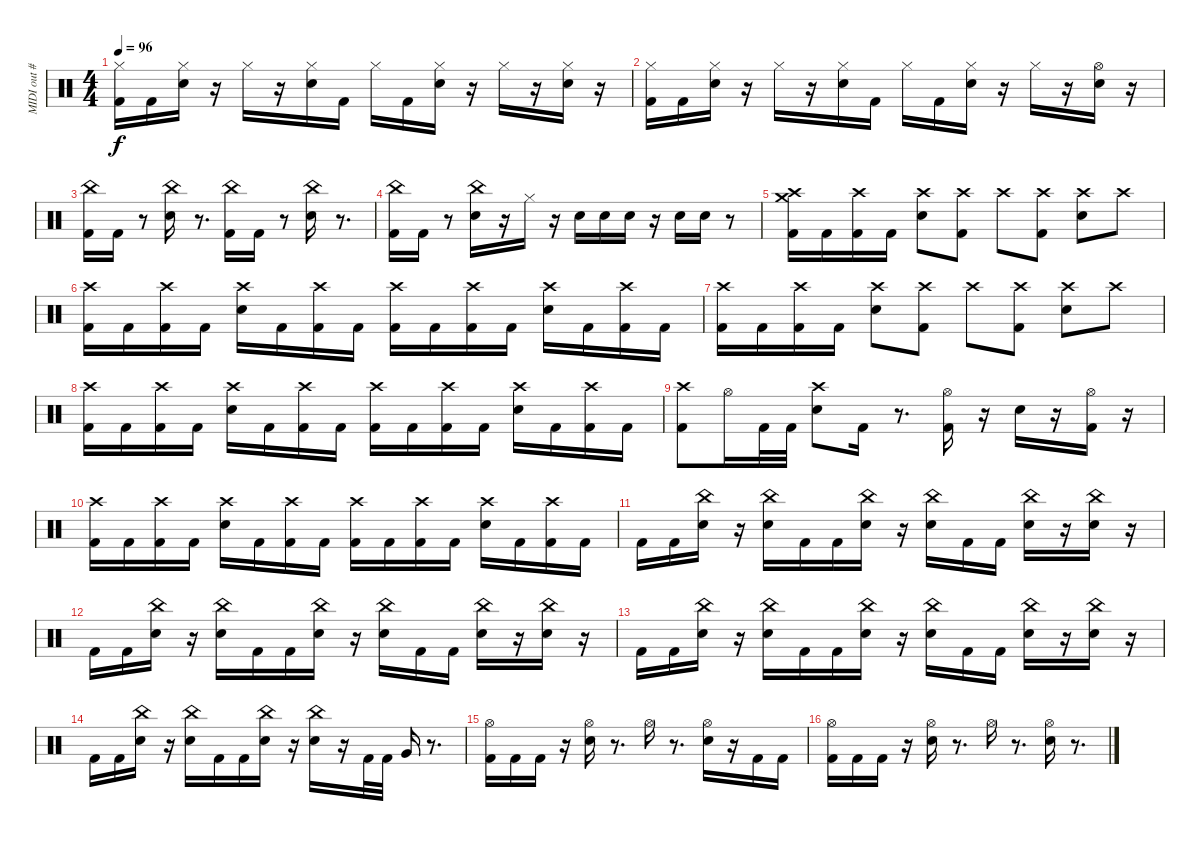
\track ("MIDI out #3" "MIDI out #") {instrument percussion}
\staff {score}
\articulation defaults
\ts (4 4)
\tempo 96
\clef neutral
\ks c
("Hi-Hat (closed)" "Kick (hit) 2").16{dy f} "Kick (hit) 2".16 ("Snare (hit) 2" "Hi-Hat (closed)").16 r.16 "Hi-Hat (closed)".16 r.16 ("Snare (hit) 2" "Hi-Hat (closed)").16 "Kick (hit) 2".16 "Hi-Hat (closed)".16 "Kick (hit) 2".16 ("Snare (hit) 2" "Hi-Hat (closed)").16 r.16 "Hi-Hat (closed)".16 r.16 ("Snare (hit) 2" "Hi-Hat (closed)").16 r.16 |
("Hi-Hat (closed)" "Kick (hit) 2").16 "Kick (hit) 2".16 ("Hi-Hat (closed)" "Snare (hit) 2").16 r.16 "Hi-Hat (closed)".16 r.16 ("Hi-Hat (closed)" "Snare (hit) 2").16 "Kick (hit) 2".16 "Hi-Hat (closed)".16 "Kick (hit) 2".16 ("Hi-Hat (closed)" "Snare (hit) 2").16 r.16 "Hi-Hat (closed)".16 r.16 ("Hi-Hat (open)" "Snare (hit) 2").16 r.16 |
("China (hit)" "Kick (hit) 2").16 "Kick (hit) 2".16 r.8 ("China (hit)" "Snare (hit) 2").16 r.8{d} ("China (hit)" "Kick (hit) 2").16 "Kick (hit) 2".16 r.8 ("China (hit)" "Snare (hit) 2").16 r.8{d} |
("China (hit)" "Kick (hit) 2").16 "Kick (hit) 2".16 r.8 ("China (hit)" "Snare (hit) 2").16 r.16 "Hi-Hat (closed)".16 r.16 "Snare (hit) 2".16 "Snare (hit) 2".16 "Snare (hit) 2".16 r.16 "Snare (hit) 2".16 "Snare (hit) 2".16 r.8 |
("Crash high (hit)" "Kick (hit) 2" "Crash medium (hit)").16 "Kick (hit) 2".16 ("Crash high (hit)" "Kick (hit) 2").16 "Kick (hit) 2".16 ("Crash high (hit)" "Snare (hit) 2").8 ("Crash high (hit)" "Kick (hit) 2").8 "Crash high (hit)".8 ("Crash high (hit)" "Kick (hit) 2").8 ("Crash high (hit)" "Snare (hit) 2").8 "Crash high (hit)".8 |
("Crash high (hit)" "Kick (hit) 2").16 "Kick (hit) 2".16 ("Crash high (hit)" "Kick (hit) 2").16 "Kick (hit) 2".16 ("Crash high (hit)" "Snare (hit) 2").16 "Kick (hit) 2".16 ("Crash high (hit)" "Kick (hit) 2").16 "Kick (hit) 2".16 ("Crash high (hit)" "Kick (hit) 2").16 "Kick (hit) 2".16 ("Crash high (hit)" "Kick (hit) 2").16 "Kick (hit) 2".16 ("Crash high (hit)" "Snare (hit) 2").16 "Kick (hit) 2".16 ("Crash high (hit)" "Kick (hit) 2").16 "Kick (hit) 2".16 |
("Crash high (hit)" "Kick (hit) 2").16 "Kick (hit) 2".16 ("Crash high (hit)" "Kick (hit) 2").16 "Kick (hit) 2".16 ("Crash high (hit)" "Snare (hit) 2").8 ("Crash high (hit)" "Kick (hit) 2").8 "Crash high (hit)".8 ("Crash high (hit)" "Kick (hit) 2").8 ("Crash high (hit)" "Snare (hit) 2").8 "Crash high (hit)".8 |
("Kick (hit) 2" "Crash high (hit)").16 "Kick (hit) 2".16 ("Crash high (hit)" "Kick (hit) 2").16 "Kick (hit) 2".16 ("Snare (hit) 2" "Crash high (hit)").16 "Kick (hit) 2".16 ("Crash high (hit)" "Kick (hit) 2").16 "Kick (hit) 2".16 ("Kick (hit) 2" "Crash high (hit)").16 "Kick (hit) 2".16 ("Crash high (hit)" "Kick (hit) 2").16 "Kick (hit) 2".16 ("Snare (hit) 2" "Crash high (hit)").16 "Kick (hit) 2".16 ("Crash high (hit)" "Kick (hit) 2").16 "Kick (hit) 2".16 |
("Crash high (hit)" "Kick (hit) 2").8 "Hi-Hat (open)".16 "Kick (hit) 2".32 "Kick (hit) 2".32 ("Crash high (hit)" "Snare (hit) 2").8 "Kick (hit) 2".16 r.8{d} ("Hi-Hat (open)" "Kick (hit) 2").16 r.16 "Snare (hit) 2".16 r.16 ("Hi-Hat (open)" "Kick (hit) 2").16 r.16 |
("Crash high (hit)" "Kick (hit) 2").16 "Kick (hit) 2".16 ("Crash high (hit)" "Kick (hit) 2").16 "Kick (hit) 2".16 ("Crash high (hit)" "Snare (hit) 2").16 "Kick (hit) 2".16 ("Crash high (hit)" "Kick (hit) 2").16 "Kick (hit) 2".16 ("Crash high (hit)" "Kick (hit) 2").16 "Kick (hit) 2".16 ("Crash high (hit)" "Kick (hit) 2").16 "Kick (hit) 2".16 ("Crash high (hit)" "Snare (hit) 2").16 "Kick (hit) 2".16 ("Crash high (hit)" "Kick (hit) 2").16 "Kick (hit) 2".16 |
"Kick (hit) 2".16 "Kick (hit) 2".16 ("Snare (hit) 2" "China (hit)").16 r.16 ("China (hit)" "Snare (hit) 2").16 "Kick (hit) 2".16 "Kick (hit) 2".16 ("Snare (hit) 2" "China (hit)").16 r.16 ("Snare (hit) 2" "China (hit)").16 "Kick (hit) 2".16 "Kick (hit) 2".16 ("China (hit)" "Snare (hit) 2").16 r.16 ("China (hit)" "Snare (hit) 2").16 r.16 |
"Kick (hit) 2".16 "Kick (hit) 2".16 ("Snare (hit) 2" "China (hit)").16 r.16 ("China (hit)" "Snare (hit) 2").16 "Kick (hit) 2".16 "Kick (hit) 2".16 ("Snare (hit) 2" "China (hit)").16 r.16 ("China (hit)" "Snare (hit) 2").16 "Kick (hit) 2".16 "Kick (hit) 2".16 ("China (hit)" "Snare (hit) 2").16 r.16 ("Snare (hit) 2" "China (hit)").16 r.16 |
"Kick (hit) 2".16 "Kick (hit) 2".16 ("Snare (hit) 2" "China (hit)").16 r.16 ("Snare (hit) 2" "China (hit)").16 "Kick (hit) 2".16 "Kick (hit) 2".16 ("Snare (hit) 2" "China (hit)").16 r.16 ("China (hit)" "Snare (hit) 2").16 "Kick (hit) 2".16 "Kick (hit) 2".16 ("China (hit)" "Snare (hit) 2").16 r.16 ("China (hit)" "Snare (hit) 2").16 r.16 |
"Kick (hit) 2".16 "Kick (hit) 2".16 ("China (hit)" "Snare (hit) 2").16 r.16 ("China (hit)" "Snare (hit) 2").16 "Kick (hit) 2".16 "Kick (hit) 2".16 ("China (hit)" "Snare (hit) 2").16 r.16 ("Snare (hit) 2" "China (hit)").16 r.16 "Kick (hit) 2".32 "Kick (hit) 2".32 "Very Low Tom (hit)".16 r.8{d} |
("Hi-Hat (open)" "Kick (hit) 2").16 "Kick (hit) 2".16 "Kick (hit) 2".16 r.16 ("Hi-Hat (open)" "Snare (hit) 2").16 r.8{d} "Hi-Hat (open)".16 r.8{d} ("Hi-Hat (open)" "Snare (hit) 2").16 r.16 "Kick (hit) 2".16 "Kick (hit) 2".16 |
("Kick (hit) 2" "Hi-Hat (open)").16 "Kick (hit) 2".16 "Kick (hit) 2".16 r.16 ("Hi-Hat (open)" "Snare (hit) 2").16 r.8{d} "Hi-Hat (open)".16 r.8{d} ("Hi-Hat (open)" "Snare (hit) 2").16 r.8{d}
